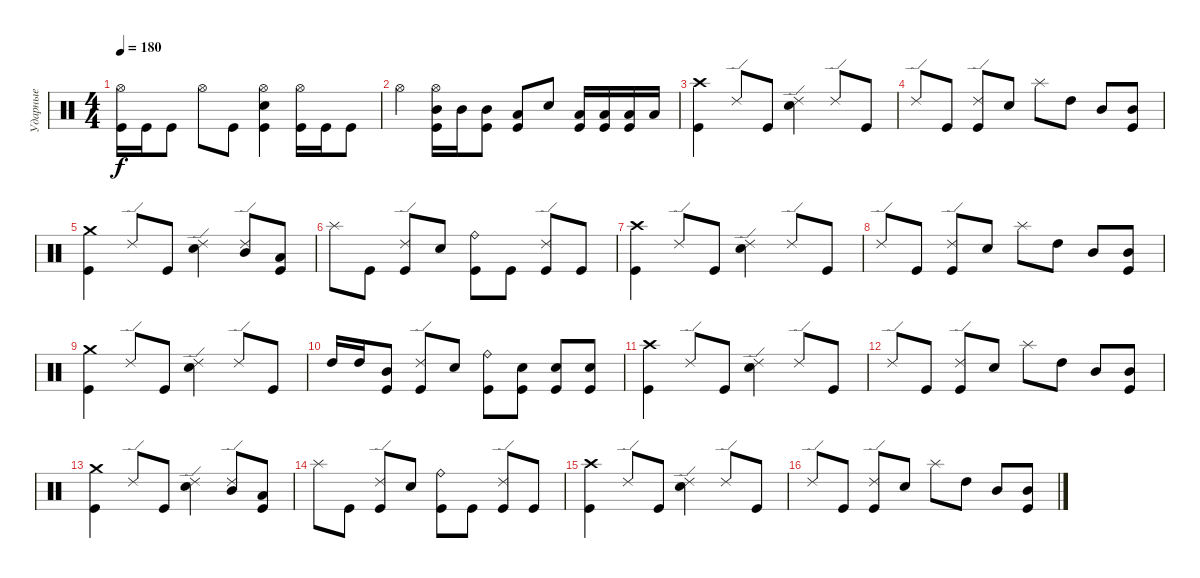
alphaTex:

\track ("Ударные" "Ударные") {instrument percussion}
\staff {score}
\articulation defaults
\ts (4 4)
\tempo 180
\clef neutral
\ks c
("Hi-Hat (open)" "Kick (hit)").16{dy f} "Kick (hit)".16 "Kick (hit)".8 "Hi-Hat (open)".8 "Kick (hit)".8 ("Hi-Hat (open)" "Snare (hit) 2" "Kick (hit)").4 ("Hi-Hat (open)" "Kick (hit)").16 "Kick (hit)".16 "Kick (hit)".8 |
"Hi-Hat (open)".4 ("Hi-Hat (open)" "Mid Tom (hit)" "Kick (hit)").16 "Mid Tom (hit)".16 ("Mid Tom (hit)" "Kick (hit)").8 ("Low Tom (hit)" "Kick (hit)").8 "Snare (hit) 2".8 ("Low Tom (hit)" "Kick (hit)").16 ("Low Tom (hit)" "Kick (hit)").16 ("Low Tom (hit)" "Kick (hit)").16 "Low Tom (hit)".16 |
("Crash high (hit)" "Kick (hit)").4 "Ride (edge) 2".8 "Kick (hit)".8 ("Ride (edge) 2" "Snare (hit) 2").4 "Ride (edge) 2".8 "Kick (hit)".8 |
"Ride (edge) 2".8 "Kick (hit)".8 ("Ride (edge) 2" "Kick (hit)").8 "Snare (hit) 2".8 "Splash (hit)".8 "High Tom (hit)".8 "Mid Tom (hit)".8 ("Mid Tom (hit)" "Kick (hit)").8 |
("Crash medium (hit)" "Kick (hit)").4 "Ride (edge) 2".8 "Kick (hit)".8 ("Ride (edge) 2" "Snare (hit) 2").4 ("Ride (edge) 2" "Mid Tom (hit)").8 ("Low Tom (hit)" "Kick (hit)").8 |
"Splash (hit)".8 "Kick (hit)".8 ("Ride (edge) 2" "Kick (hit)").8 "Snare (hit) 2".8 ("Ride (bell)" "Kick (hit)").8 "Kick (hit)".8 ("Ride (edge) 2" "Kick (hit)").8 "Kick (hit)".8 |
("Crash high (hit)" "Kick (hit)").4 "Ride (edge) 2".8 "Kick (hit)".8 ("Ride (edge) 2" "Snare (hit) 2").4 "Ride (edge) 2".8 "Kick (hit)".8 |
"Ride (edge) 2".8 "Kick (hit)".8 ("Ride (edge) 2" "Kick (hit)").8 "Snare (hit) 2".8 "Splash (hit)".8 "High Tom (hit)".8 "Mid Tom (hit)".8 ("Mid Tom (hit)" "Kick (hit)").8 |
("Crash medium (hit)" "Kick (hit)").4 "Ride (edge) 2".8 "Kick (hit)".8 ("Ride (edge) 2" "Snare (hit) 2").4 "Ride (edge) 2".8 "Kick (hit)".8 |
"High Tom (hit)".16 "High Tom (hit)".16 ("Mid Tom (hit)" "Kick (hit)").8 ("Ride (edge) 2" "Kick (hit)").8 "Snare (hit) 2".8 ("Ride (bell)" "Kick (hit)").8 ("Snare (hit) 2" "Kick (hit)").8 ("Snare (hit) 2" "Kick (hit)").8 ("Snare (hit) 2" "Kick (hit)").8 |
("Crash high (hit)" "Kick (hit)").4 "Ride (edge) 2".8 "Kick (hit)".8 ("Ride (edge) 2" "Snare (hit) 2").4 "Ride (edge) 2".8 "Kick (hit)".8 |
"Ride (edge) 2".8 "Kick (hit)".8 ("Ride (edge) 2" "Kick (hit)").8 "Snare (hit) 2".8 "Splash (hit)".8 "High Tom (hit)".8 "Mid Tom (hit)".8 ("Mid Tom (hit)" "Kick (hit)").8 |
("Crash medium (hit)" "Kick (hit)").4 "Ride (edge) 2".8 "Kick (hit)".8 ("Ride (edge) 2" "Snare (hit) 2").4 ("Ride (edge) 2" "Mid Tom (hit)").8 ("Low Tom (hit)" "Kick (hit)").8 |
"Splash (hit)".8 "Kick (hit)".8 ("Ride (edge) 2" "Kick (hit)").8 "Snare (hit) 2".8 ("Ride (bell)" "Kick (hit)").8 "Kick (hit)".8 ("Ride (edge) 2" "Kick (hit)").8 "Kick (hit)".8 |
("Crash high (hit)" "Kick (hit)").4 "Ride (edge) 2".8 "Kick (hit)".8 ("Ride (edge) 2" "Snare (hit) 2").4 "Ride (edge) 2".8 "Kick (hit)".8 |
"Ride (edge) 2".8 "Kick (hit)".8 ("Ride (edge) 2" "Kick (hit)").8 "Snare (hit) 2".8 "Splash (hit)".8 "High Tom (hit)".8 "Mid Tom (hit)".8 ("Mid Tom (hit)" "Kick (hit)").8
